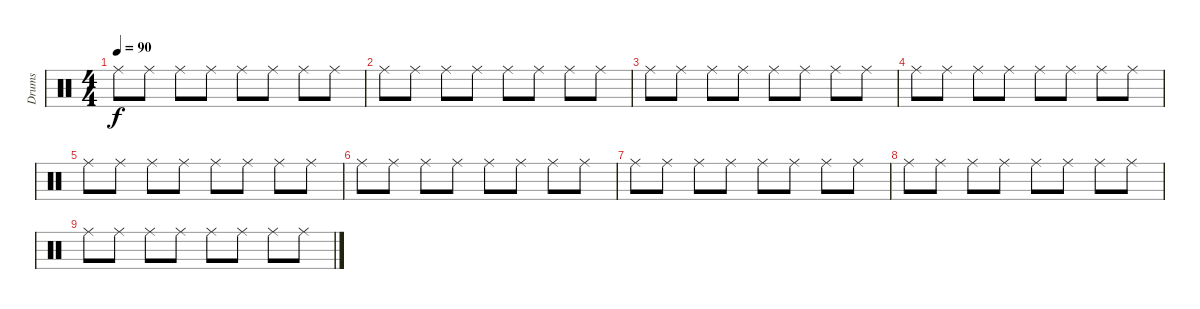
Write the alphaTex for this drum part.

\track ("Drums" "Drums") {instrument percussion}
\staff {score}
\articulation defaults
\ts (4 4)
\tempo 90
\clef neutral
\ks c "Ride (middle)".8{dy f} "Ride (middle)".8 "Ride (middle)".8 "Ride (middle)".8 "Ride (middle)".8 "Ride (middle)".8 "Ride (middle)".8 "Ride (middle)".8
|
"Ride (middle)".8 "Ride (middle)".8 "Ride (middle)".8 "Ride (middle)".8 "Ride (middle)".8 "Ride (middle)".8 "Ride (middle)".8 "Ride (middle)".8 |
"Ride (middle)".8 "Ride (middle)".8 "Ride (middle)".8 "Ride (middle)".8 "Ride (middle)".8 "Ride (middle)".8 "Ride (middle)".8 "Ride (middle)".8 |
"Ride (middle)".8 "Ride (middle)".8 "Ride (middle)".8 "Ride (middle)".8 "Ride (middle)".8 "Ride (middle)".8 "Ride (middle)".8 "Ride (middle)".8 |
"Ride (middle)".8 "Ride (middle)".8 "Ride (middle)".8 "Ride (middle)".8 "Ride (middle)".8 "Ride (middle)".8 "Ride (middle)".8 "Ride (middle)".8 |
"Ride (middle)".8 "Ride (middle)".8 "Ride (middle)".8 "Ride (middle)".8 "Ride (middle)".8 "Ride (middle)".8 "Ride (middle)".8 "Ride (middle)".8 |
"Ride (middle)".8 "Ride (middle)".8 "Ride (middle)".8 "Ride (middle)".8 "Ride (middle)".8 "Ride (middle)".8 "Ride (middle)".8 "Ride (middle)".8 |
"Ride (middle)".8 "Ride (middle)".8 "Ride (middle)".8 "Ride (middle)".8 "Ride (middle)".8 "Ride (middle)".8 "Ride (middle)".8 "Ride (middle)".8 |
"Ride (middle)".8 "Ride (middle)".8 "Ride (middle)".8 "Ride (middle)".8 "Ride (middle)".8 "Ride (middle)".8 "Ride (middle)".8 "Ride (middle)".8
